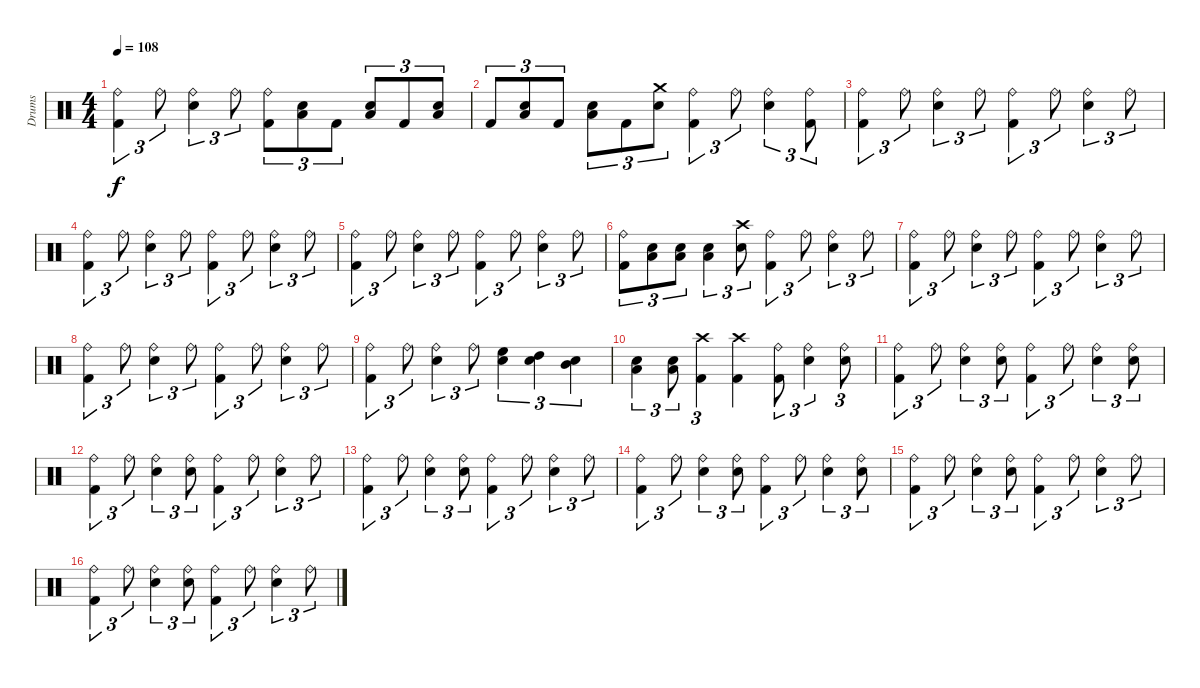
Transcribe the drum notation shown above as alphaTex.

\track ("Drums" "Drums") {instrument percussion}
\staff {score}
\articulation defaults
\ts (4 4)
\tempo 108
\clef neutral
\ks c
("Ride (bell)" "Kick (hit) 2").4{tu (3 2) dy f} "Ride (bell)".8{tu (3 2)} ("Ride (bell)" "Electric Snare (hit)").4{tu (3 2)} "Ride (bell)".8{tu (3 2)} ("Ride (bell)" "Kick (hit) 2").8{tu (3 2)} ("Low Floor Tom (hit)" "Electric Snare (hit)").8{tu (3 2)} "Kick (hit) 2".8{tu (3 2)} ("Low Floor Tom (hit)" "Electric Snare (hit)").8{tu (3 2)} "Kick (hit) 2".8{tu (3 2)} ("Low Floor Tom (hit)" "Electric Snare (hit)").8{tu (3 2)} |
"Kick (hit) 2".8{tu (3 2)} ("Low Floor Tom (hit)" "Electric Snare (hit)").8{tu (3 2)} "Kick (hit) 2".8{tu (3 2)} ("Low Floor Tom (hit)" "Electric Snare (hit)").8{tu (3 2)} "Kick (hit) 2".8{tu (3 2)} ("Crash medium (hit)" "Electric Snare (hit)").8{tu (3 2)} ("Ride (bell)" "Kick (hit) 2").4{tu (3 2)} "Ride (bell)".8{tu (3 2)} ("Ride (bell)" "Electric Snare (hit)").4{tu (3 2)} ("Ride (bell)" "Kick (hit) 2").8{tu (3 2)} |
("Ride (bell)" "Kick (hit) 2").4{tu (3 2)} "Ride (bell)".8{tu (3 2)} ("Ride (bell)" "Electric Snare (hit)").4{tu (3 2)} "Ride (bell)".8{tu (3 2)} ("Ride (bell)" "Kick (hit) 2").4{tu (3 2)} "Ride (bell)".8{tu (3 2)} ("Ride (bell)" "Electric Snare (hit)").4{tu (3 2)} "Ride (bell)".8{tu (3 2)} |
("Ride (bell)" "Kick (hit) 2").4{tu (3 2)} "Ride (bell)".8{tu (3 2)} ("Ride (bell)" "Electric Snare (hit)").4{tu (3 2)} "Ride (bell)".8{tu (3 2)} ("Ride (bell)" "Kick (hit) 2").4{tu (3 2)} "Ride (bell)".8{tu (3 2)} ("Ride (bell)" "Electric Snare (hit)").4{tu (3 2)} "Ride (bell)".8{tu (3 2)} |
("Ride (bell)" "Kick (hit) 2").4{tu (3 2)} "Ride (bell)".8{tu (3 2)} ("Ride (bell)" "Electric Snare (hit)").4{tu (3 2)} "Ride (bell)".8{tu (3 2)} ("Ride (bell)" "Kick (hit) 2").4{tu (3 2)} "Ride (bell)".8{tu (3 2)} ("Ride (bell)" "Electric Snare (hit)").4{tu (3 2)} "Ride (bell)".8{tu (3 2)} |
("Ride (bell)" "Kick (hit) 2").8{tu (3 2)} ("Low Floor Tom (hit)" "Electric Snare (hit)").8{tu (3 2)} ("Low Floor Tom (hit)" "Electric Snare (hit)").8{tu (3 2)} ("Low Floor Tom (hit)" "Electric Snare (hit)").4{tu (3 2)} ("Crash high (hit)" "Electric Snare (hit)").8{tu (3 2)} ("Ride (bell)" "Kick (hit) 2").4{tu (3 2)} "Ride (bell)".8{tu (3 2)} ("Ride (bell)" "Electric Snare (hit)").4{tu (3 2)} "Ride (bell)".8{tu (3 2)} |
("Ride (bell)" "Kick (hit) 2").4{tu (3 2)} "Ride (bell)".8{tu (3 2)} ("Ride (bell)" "Electric Snare (hit)").4{tu (3 2)} "Ride (bell)".8{tu (3 2)} ("Ride (bell)" "Kick (hit) 2").4{tu (3 2)} "Ride (bell)".8{tu (3 2)} ("Ride (bell)" "Electric Snare (hit)").4{tu (3 2)} "Ride (bell)".8{tu (3 2)} |
("Ride (bell)" "Kick (hit) 2").4{tu (3 2)} "Ride (bell)".8{tu (3 2)} ("Ride (bell)" "Electric Snare (hit)").4{tu (3 2)} "Ride (bell)".8{tu (3 2)} ("Ride (bell)" "Kick (hit) 2").4{tu (3 2)} "Ride (bell)".8{tu (3 2)} ("Ride (bell)" "Electric Snare (hit)").4{tu (3 2)} "Ride (bell)".8{tu (3 2)} |
("Ride (bell)" "Kick (hit) 2").4{tu (3 2)} "Ride (bell)".8{tu (3 2)} ("Ride (bell)" "Electric Snare (hit)").4{tu (3 2)} "Ride (bell)".8{tu (3 2)} ("High Floor Tom (hit)" "Electric Snare (hit)").4{tu (3 2)} ("High Tom (hit)" "Electric Snare (hit)").4{tu (3 2)} ("Mid Tom (hit)" "Electric Snare (hit)").4{tu (3 2)} |
("Low Tom (hit)" "Electric Snare (hit)").4{tu (3 2)} ("Low Floor Tom (hit)" "Electric Snare (hit)").8{tu (3 2)} ("Crash high (hit)" "Kick (hit) 2").4{tu (3 2)} ("Crash high (hit)" "Kick (hit) 2").4 ("Ride (bell)" "Kick (hit) 2").8{tu (3 2)} ("Ride (bell)" "Electric Snare (hit)").4{tu (3 2)} ("Ride (bell)" "Electric Snare (hit)").8{tu (3 2)} |
("Ride (bell)" "Kick (hit) 2").4{tu (3 2)} "Ride (bell)".8{tu (3 2)} ("Ride (bell)" "Electric Snare (hit)").4{tu (3 2)} ("Ride (bell)" "Electric Snare (hit)").8{tu (3 2)} ("Ride (bell)" "Kick (hit) 2").4{tu (3 2)} "Ride (bell)".8{tu (3 2)} ("Ride (bell)" "Electric Snare (hit)").4{tu (3 2)} ("Ride (bell)" "Electric Snare (hit)").8{tu (3 2)} |
("Ride (bell)" "Kick (hit) 2").4{tu (3 2)} "Ride (bell)".8{tu (3 2)} ("Ride (bell)" "Electric Snare (hit)").4{tu (3 2)} ("Ride (bell)" "Electric Snare (hit)").8{tu (3 2)} ("Ride (bell)" "Kick (hit) 2").4{tu (3 2)} "Ride (bell)".8{tu (3 2)} ("Ride (bell)" "Electric Snare (hit)").4{tu (3 2)} "Ride (bell)".8{tu (3 2)} |
("Ride (bell)" "Kick (hit) 2").4{tu (3 2)} "Ride (bell)".8{tu (3 2)} ("Ride (bell)" "Electric Snare (hit)").4{tu (3 2)} ("Ride (bell)" "Electric Snare (hit)").8{tu (3 2)} ("Ride (bell)" "Kick (hit) 2").4{tu (3 2)} "Ride (bell)".8{tu (3 2)} ("Ride (bell)" "Electric Snare (hit)").4{tu (3 2)} "Ride (bell)".8{tu (3 2)} |
("Ride (bell)" "Kick (hit) 2").4{tu (3 2)} "Ride (bell)".8{tu (3 2)} ("Ride (bell)" "Electric Snare (hit)").4{tu (3 2)} ("Ride (bell)" "Electric Snare (hit)").8{tu (3 2)} ("Ride (bell)" "Kick (hit) 2").4{tu (3 2)} "Ride (bell)".8{tu (3 2)} ("Ride (bell)" "Electric Snare (hit)").4{tu (3 2)} ("Ride (bell)" "Electric Snare (hit)").8{tu (3 2)} |
("Ride (bell)" "Kick (hit) 2").4{tu (3 2)} "Ride (bell)".8{tu (3 2)} ("Ride (bell)" "Electric Snare (hit)").4{tu (3 2)} ("Ride (bell)" "Electric Snare (hit)").8{tu (3 2)} ("Ride (bell)" "Kick (hit) 2").4{tu (3 2)} "Ride (bell)".8{tu (3 2)} ("Ride (bell)" "Electric Snare (hit)").4{tu (3 2)} "Ride (bell)".8{tu (3 2)} |
("Ride (bell)" "Kick (hit) 2").4{tu (3 2)} "Ride (bell)".8{tu (3 2)} ("Ride (bell)" "Electric Snare (hit)").4{tu (3 2)} ("Ride (bell)" "Electric Snare (hit)").8{tu (3 2)} ("Ride (bell)" "Kick (hit) 2").4{tu (3 2)} "Ride (bell)".8{tu (3 2)} ("Ride (bell)" "Electric Snare (hit)").4{tu (3 2)} "Ride (bell)".8{tu (3 2)}
